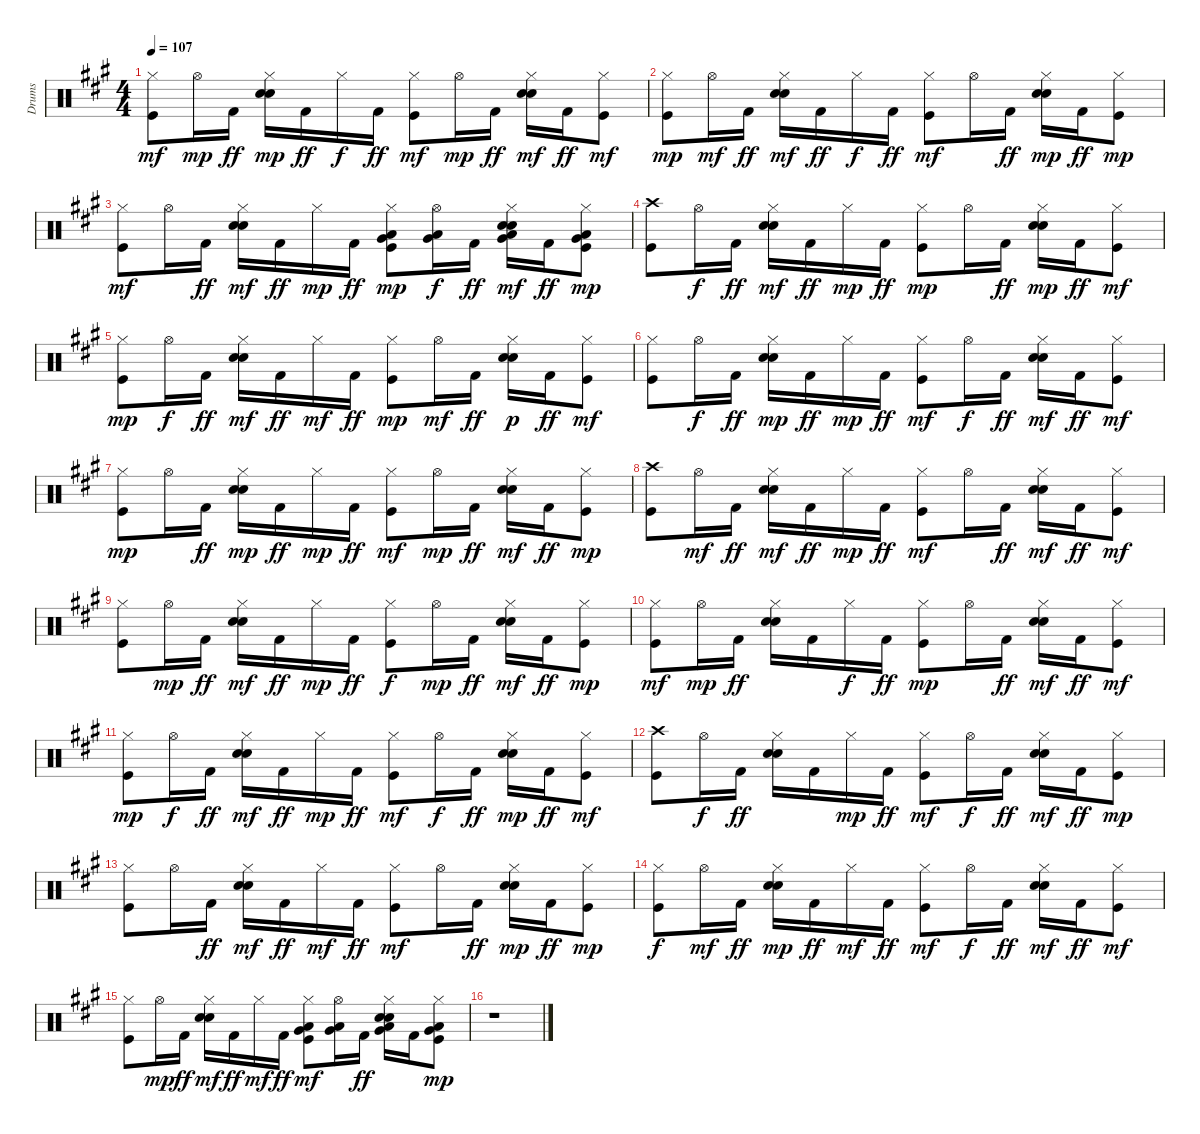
\track ("Drums" "Drums") {instrument percussion}
\staff {score}
\articulation defaults
\ts (4 4)
\tempo 107
\clef neutral
\ks a
("Kick (hit)" "Hi-Hat (closed)").8{dy mf} "Hi-Hat (open)".16{dy mp} "Kick (hit) 2".16{dy ff} ("Snare (hit) 2" "Hand Clap (hit)" "Hi-Hat (closed)").16{dy mp} "Kick (hit) 2".16{dy ff} "Hi-Hat (closed)".16{dy f} "Kick (hit) 2".16{dy ff} ("Kick (hit)" "Hi-Hat (closed)").8{dy mf} "Hi-Hat (open)".16{dy mp} "Kick (hit) 2".16{dy ff} ("Snare (hit) 2" "Hand Clap (hit)" "Hi-Hat (closed)").16{dy mf} "Kick (hit) 2".16{dy ff} ("Kick (hit)" "Hi-Hat (closed)").8{dy mf} |
("Kick (hit)" "Hi-Hat (closed)").8{dy mp} "Hi-Hat (open)".16{dy mf} "Kick (hit) 2".16{dy ff} ("Snare (hit) 2" "Hand Clap (hit)" "Hi-Hat (closed)").16{dy mf} "Kick (hit) 2".16{dy ff} "Hi-Hat (closed)".16{dy f} "Kick (hit) 2".16{dy ff} ("Kick (hit)" "Hi-Hat (closed)").8{dy mf} "Hi-Hat (open)".16 "Kick (hit) 2".16{dy ff} ("Snare (hit) 2" "Hand Clap (hit)" "Hi-Hat (closed)").16{dy mp} "Kick (hit) 2".16{dy ff} ("Kick (hit)" "Hi-Hat (closed)").8{dy mp} |
("Kick (hit)" "Hi-Hat (closed)").8{dy mf} "Hi-Hat (open)".16 "Kick (hit) 2".16{dy ff} ("Snare (hit) 2" "Hand Clap (hit)" "Hi-Hat (closed)").16{dy mf} "Kick (hit) 2".16{dy ff} "Hi-Hat (closed)".16{dy mp} "Kick (hit) 2".16{dy ff} ("Kick (hit)" "Low Floor Tom (hit)" "Hi-Hat (closed)" "Very Low Tom (hit)").8{dy mp} ("Low Floor Tom (hit)" "Very Low Tom (hit)" "Hi-Hat (open)").16{dy f} "Kick (hit) 2".16{dy ff} ("Snare (hit) 2" "Hand Clap (hit)" "Low Floor Tom (hit)" "Hi-Hat (closed)" "Very Low Tom (hit)").16{dy mf} "Kick (hit) 2".16{dy ff} ("Kick (hit)" "Low Floor Tom (hit)" "Hi-Hat (closed)" "Very Low Tom (hit)").8{dy mp} |
("Kick (hit)" "Crash high (hit)").8 "Hi-Hat (open)".16{dy f} "Kick (hit) 2".16{dy ff} ("Snare (hit) 2" "Hand Clap (hit)" "Hi-Hat (closed)").16{dy mf} "Kick (hit) 2".16{dy ff} "Hi-Hat (closed)".16{dy mp} "Kick (hit) 2".16{dy ff} ("Kick (hit)" "Hi-Hat (closed)").8{dy mp} "Hi-Hat (open)".16 "Kick (hit) 2".16{dy ff} ("Snare (hit) 2" "Hand Clap (hit)" "Hi-Hat (closed)").16{dy mp} "Kick (hit) 2".16{dy ff} ("Kick (hit)" "Hi-Hat (closed)").8{dy mf} |
("Kick (hit)" "Hi-Hat (closed)").8{dy mp} "Hi-Hat (open)".16{dy f} "Kick (hit) 2".16{dy ff} ("Snare (hit) 2" "Hand Clap (hit)" "Hi-Hat (closed)").16{dy mf} "Kick (hit) 2".16{dy ff} "Hi-Hat (closed)".16{dy mf} "Kick (hit) 2".16{dy ff} ("Kick (hit)" "Hi-Hat (closed)").8{dy mp} "Hi-Hat (open)".16{dy mf} "Kick (hit) 2".16{dy ff} ("Snare (hit) 2" "Hand Clap (hit)" "Hi-Hat (closed)").16{dy p} "Kick (hit) 2".16{dy ff} ("Kick (hit)" "Hi-Hat (closed)").8{dy mf} |
("Kick (hit)" "Hi-Hat (closed)").8 "Hi-Hat (open)".16{dy f} "Kick (hit) 2".16{dy ff} ("Snare (hit) 2" "Hand Clap (hit)" "Hi-Hat (closed)").16{dy mp} "Kick (hit) 2".16{dy ff} "Hi-Hat (closed)".16{dy mp} "Kick (hit) 2".16{dy ff} ("Kick (hit)" "Hi-Hat (closed)").8{dy mf} "Hi-Hat (open)".16{dy f} "Kick (hit) 2".16{dy ff} ("Snare (hit) 2" "Hand Clap (hit)" "Hi-Hat (closed)").16{dy mf} "Kick (hit) 2".16{dy ff} ("Kick (hit)" "Hi-Hat (closed)").8{dy mf} |
("Kick (hit)" "Hi-Hat (closed)").8{dy mp} "Hi-Hat (open)".16 "Kick (hit) 2".16{dy ff} ("Snare (hit) 2" "Hand Clap (hit)" "Hi-Hat (closed)").16{dy mp} "Kick (hit) 2".16{dy ff} "Hi-Hat (closed)".16{dy mp} "Kick (hit) 2".16{dy ff} ("Kick (hit)" "Hi-Hat (closed)").8{dy mf} "Hi-Hat (open)".16{dy mp} "Kick (hit) 2".16{dy ff} ("Snare (hit) 2" "Hand Clap (hit)" "Hi-Hat (closed)").16{dy mf} "Kick (hit) 2".16{dy ff} ("Kick (hit)" "Hi-Hat (closed)").8{dy mp} |
("Kick (hit)" "Crash high (hit)").8 "Hi-Hat (open)".16{dy mf} "Kick (hit) 2".16{dy ff} ("Snare (hit) 2" "Hand Clap (hit)" "Hi-Hat (closed)").16{dy mf} "Kick (hit) 2".16{dy ff} "Hi-Hat (closed)".16{dy mp} "Kick (hit) 2".16{dy ff} ("Kick (hit)" "Hi-Hat (closed)").8{dy mf} "Hi-Hat (open)".16 "Kick (hit) 2".16{dy ff} ("Snare (hit) 2" "Hand Clap (hit)" "Hi-Hat (closed)").16{dy mf} "Kick (hit) 2".16{dy ff} ("Kick (hit)" "Hi-Hat (closed)").8{dy mf} |
("Kick (hit)" "Hi-Hat (closed)").8 "Hi-Hat (open)".16{dy mp} "Kick (hit) 2".16{dy ff} ("Snare (hit) 2" "Hand Clap (hit)" "Hi-Hat (closed)").16{dy mf} "Kick (hit) 2".16{dy ff} "Hi-Hat (closed)".16{dy mp} "Kick (hit) 2".16{dy ff} ("Kick (hit)" "Hi-Hat (closed)").8{dy f} "Hi-Hat (open)".16{dy mp} "Kick (hit) 2".16{dy ff} ("Snare (hit) 2" "Hand Clap (hit)" "Hi-Hat (closed)").16{dy mf} "Kick (hit) 2".16{dy ff} ("Kick (hit)" "Hi-Hat (closed)").8{dy mp} |
("Kick (hit)" "Hi-Hat (closed)").8{dy mf} "Hi-Hat (open)".16{dy mp} "Kick (hit) 2".16{dy ff} ("Snare (hit) 2" "Hand Clap (hit)" "Hi-Hat (closed)").16 "Kick (hit) 2".16 "Hi-Hat (closed)".16{dy f} "Kick (hit) 2".16{dy ff} ("Kick (hit)" "Hi-Hat (closed)").8{dy mp} "Hi-Hat (open)".16 "Kick (hit) 2".16{dy ff} ("Snare (hit) 2" "Hand Clap (hit)" "Hi-Hat (closed)").16{dy mf} "Kick (hit) 2".16{dy ff} ("Kick (hit)" "Hi-Hat (closed)").8{dy mf} |
("Kick (hit)" "Hi-Hat (closed)").8{dy mp} "Hi-Hat (open)".16{dy f} "Kick (hit) 2".16{dy ff} ("Snare (hit) 2" "Hand Clap (hit)" "Hi-Hat (closed)").16{dy mf} "Kick (hit) 2".16{dy ff} "Hi-Hat (closed)".16{dy mp} "Kick (hit) 2".16{dy ff} ("Kick (hit)" "Hi-Hat (closed)").8{dy mf} "Hi-Hat (open)".16{dy f} "Kick (hit) 2".16{dy ff} ("Snare (hit) 2" "Hand Clap (hit)" "Hi-Hat (closed)").16{dy mp} "Kick (hit) 2".16{dy ff} ("Kick (hit)" "Hi-Hat (closed)").8{dy mf} |
("Kick (hit)" "Crash high (hit)").8 "Hi-Hat (open)".16{dy f} "Kick (hit) 2".16{dy ff} ("Snare (hit) 2" "Hand Clap (hit)" "Hi-Hat (closed)").16 "Kick (hit) 2".16 "Hi-Hat (closed)".16{dy mp} "Kick (hit) 2".16{dy ff} ("Kick (hit)" "Hi-Hat (closed)").8{dy mf} "Hi-Hat (open)".16{dy f} "Kick (hit) 2".16{dy ff} ("Snare (hit) 2" "Hand Clap (hit)" "Hi-Hat (closed)").16{dy mf} "Kick (hit) 2".16{dy ff} ("Kick (hit)" "Hi-Hat (closed)").8{dy mp} |
("Kick (hit)" "Hi-Hat (closed)").8 "Hi-Hat (open)".16 "Kick (hit) 2".16{dy ff} ("Snare (hit) 2" "Hand Clap (hit)" "Hi-Hat (closed)").16{dy mf} "Kick (hit) 2".16{dy ff} "Hi-Hat (closed)".16{dy mf} "Kick (hit) 2".16{dy ff} ("Kick (hit)" "Hi-Hat (closed)").8{dy mf} "Hi-Hat (open)".16 "Kick (hit) 2".16{dy ff} ("Snare (hit) 2" "Hand Clap (hit)" "Hi-Hat (closed)").16{dy mp} "Kick (hit) 2".16{dy ff} ("Kick (hit)" "Hi-Hat (closed)").8{dy mp} |
("Kick (hit)" "Hi-Hat (closed)").8{dy f} "Hi-Hat (open)".16{dy mf} "Kick (hit) 2".16{dy ff} ("Snare (hit) 2" "Hand Clap (hit)" "Hi-Hat (closed)").16{dy mp} "Kick (hit) 2".16{dy ff} "Hi-Hat (closed)".16{dy mf} "Kick (hit) 2".16{dy ff} ("Kick (hit)" "Hi-Hat (closed)").8{dy mf} "Hi-Hat (open)".16{dy f} "Kick (hit) 2".16{dy ff} ("Snare (hit) 2" "Hand Clap (hit)" "Hi-Hat (closed)").16{dy mf} "Kick (hit) 2".16{dy ff} ("Kick (hit)" "Hi-Hat (closed)").8{dy mf} |
("Kick (hit)" "Hi-Hat (closed)").8 "Hi-Hat (open)".16{dy mp} "Kick (hit) 2".16{dy ff} ("Snare (hit) 2" "Hand Clap (hit)" "Hi-Hat (closed)").16{dy mf} "Kick (hit) 2".16{dy ff} "Hi-Hat (closed)".16{dy mf} "Kick (hit) 2".16{dy ff} ("Kick (hit)" "Low Floor Tom (hit)" "Hi-Hat (closed)" "Very Low Tom (hit)").8{dy mf} ("Low Floor Tom (hit)" "Very Low Tom (hit)" "Hi-Hat (open)").16 "Kick (hit) 2".16{dy ff} ("Snare (hit) 2" "Hand Clap (hit)" "Low Floor Tom (hit)" "Hi-Hat (closed)" "Very Low Tom (hit)").16 "Kick (hit) 2".16 ("Kick (hit)" "Low Floor Tom (hit)" "Hi-Hat (closed)" "Very Low Tom (hit)").8{dy mp} |
r.1
